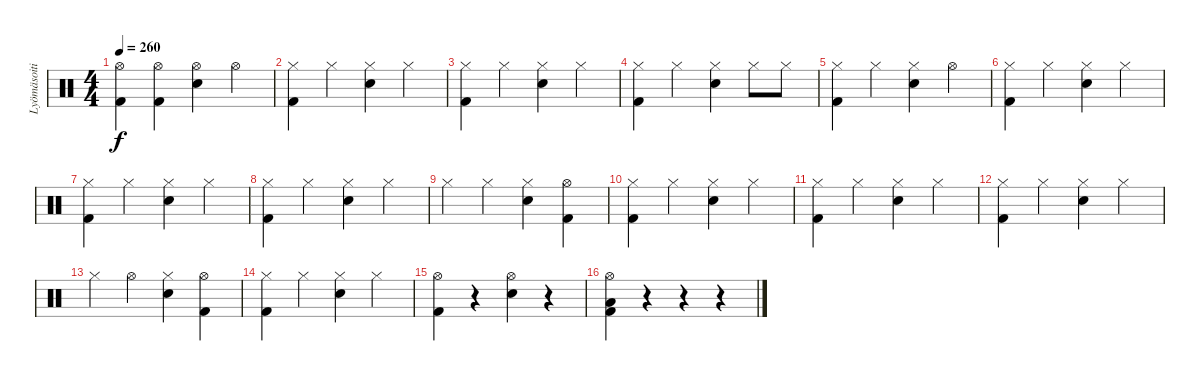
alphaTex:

\track ("Lyömäsoitin" "Lyömäsoiti") {instrument percussion}
\staff {score}
\articulation defaults
\ts (4 4)
\tempo 260
\clef neutral
\ks c
("Hi-Hat (open)" "Kick (hit) 2").4{dy f} ("Hi-Hat (open)" "Kick (hit) 2").4 ("Hi-Hat (open)" "Electric Snare (hit)").4 "Hi-Hat (open)".4 |
("Hi-Hat (closed)" "Kick (hit) 2").4 "Hi-Hat (closed)".4 ("Hi-Hat (closed)" "Electric Snare (hit)").4 "Hi-Hat (closed)".4 |
("Hi-Hat (closed)" "Kick (hit) 2").4 "Hi-Hat (closed)".4 ("Hi-Hat (closed)" "Electric Snare (hit)").4 "Hi-Hat (closed)".4 |
("Hi-Hat (closed)" "Kick (hit) 2").4 "Hi-Hat (closed)".4 ("Hi-Hat (closed)" "Electric Snare (hit)").4 "Hi-Hat (closed)".8 "Hi-Hat (closed)".8 |
("Hi-Hat (closed)" "Kick (hit) 2").4 "Hi-Hat (closed)".4 ("Hi-Hat (closed)" "Electric Snare (hit)").4 "Hi-Hat (open)".4 |
("Hi-Hat (closed)" "Kick (hit) 2").4 "Hi-Hat (closed)".4 ("Hi-Hat (closed)" "Electric Snare (hit)").4 "Hi-Hat (closed)".4 |
("Hi-Hat (closed)" "Kick (hit) 2").4 "Hi-Hat (closed)".4 ("Hi-Hat (closed)" "Electric Snare (hit)").4 "Hi-Hat (closed)".4 |
("Hi-Hat (closed)" "Kick (hit) 2").4 "Hi-Hat (closed)".4 ("Hi-Hat (closed)" "Electric Snare (hit)").4 "Hi-Hat (closed)".4 |
"Hi-Hat (closed)".4 "Hi-Hat (closed)".4 ("Hi-Hat (closed)" "Electric Snare (hit)").4 ("Hi-Hat (open)" "Kick (hit) 2").4 |
("Hi-Hat (closed)" "Kick (hit) 2").4 "Hi-Hat (closed)".4 ("Hi-Hat (closed)" "Electric Snare (hit)").4 "Hi-Hat (closed)".4 |
("Hi-Hat (closed)" "Kick (hit) 2").4 "Hi-Hat (closed)".4 ("Hi-Hat (closed)" "Electric Snare (hit)").4 "Hi-Hat (closed)".4 |
("Hi-Hat (closed)" "Kick (hit) 2").4 "Hi-Hat (closed)".4 ("Hi-Hat (closed)" "Electric Snare (hit)").4 "Hi-Hat (closed)".4 |
"Hi-Hat (closed)".4 "Hi-Hat (open)".4 ("Hi-Hat (closed)" "Electric Snare (hit)").4 ("Hi-Hat (open)" "Kick (hit) 2").4 |
("Hi-Hat (closed)" "Kick (hit) 2").4 "Hi-Hat (closed)".4 ("Hi-Hat (closed)" "Electric Snare (hit)").4 "Hi-Hat (closed)".4 |
("Hi-Hat (open)" "Kick (hit) 2").4 r.4 ("Hi-Hat (open)" "Electric Snare (hit)").4 r.4 |
("Hi-Hat (open)" "Low Floor Tom (hit)" "Kick (hit) 2").4 r.4 r.4 r.4
